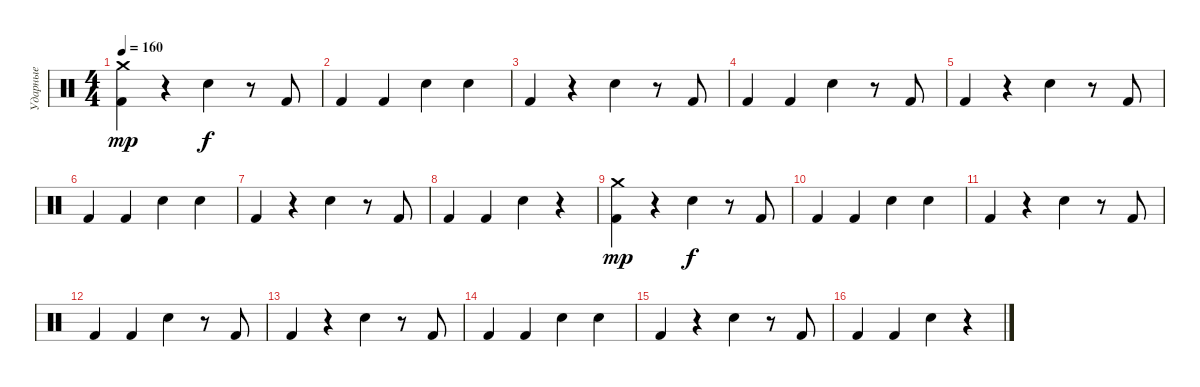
\track ("Ударные" "Ударные") {instrument percussion}
\staff {score}
\articulation defaults
\ts (4 4)
\tempo 160
\clef neutral
\ks c
("Kick (hit) 2" "Crash medium (hit)").4{dy mp} r.4 "Electric Snare (hit)".4{dy f} r.8 "Kick (hit) 2".8 |
"Kick (hit) 2".4 "Kick (hit) 2".4 "Electric Snare (hit)".4 "Electric Snare (hit)".4 |
"Kick (hit) 2".4 r.4 "Electric Snare (hit)".4 r.8 "Kick (hit) 2".8 |
"Kick (hit) 2".4 "Kick (hit) 2".4 "Electric Snare (hit)".4 r.8 "Kick (hit) 2".8 |
"Kick (hit) 2".4 r.4 "Electric Snare (hit)".4 r.8 "Kick (hit) 2".8 |
"Kick (hit) 2".4 "Kick (hit) 2".4 "Electric Snare (hit)".4 "Electric Snare (hit)".4 |
"Kick (hit) 2".4 r.4 "Electric Snare (hit)".4 r.8 "Kick (hit) 2".8 |
"Kick (hit) 2".4 "Kick (hit) 2".4 "Electric Snare (hit)".4 r.4 |
("Kick (hit) 2" "Crash medium (hit)").4{dy mp} r.4 "Electric Snare (hit)".4{dy f} r.8 "Kick (hit) 2".8 |
"Kick (hit) 2".4 "Kick (hit) 2".4 "Electric Snare (hit)".4 "Electric Snare (hit)".4 |
"Kick (hit) 2".4 r.4 "Electric Snare (hit)".4 r.8 "Kick (hit) 2".8 |
"Kick (hit) 2".4 "Kick (hit) 2".4 "Electric Snare (hit)".4 r.8 "Kick (hit) 2".8 |
"Kick (hit) 2".4 r.4 "Electric Snare (hit)".4 r.8 "Kick (hit) 2".8 |
"Kick (hit) 2".4 "Kick (hit) 2".4 "Electric Snare (hit)".4 "Electric Snare (hit)".4 |
"Kick (hit) 2".4 r.4 "Electric Snare (hit)".4 r.8 "Kick (hit) 2".8 |
"Kick (hit) 2".4 "Kick (hit) 2".4 "Electric Snare (hit)".4 r.4
